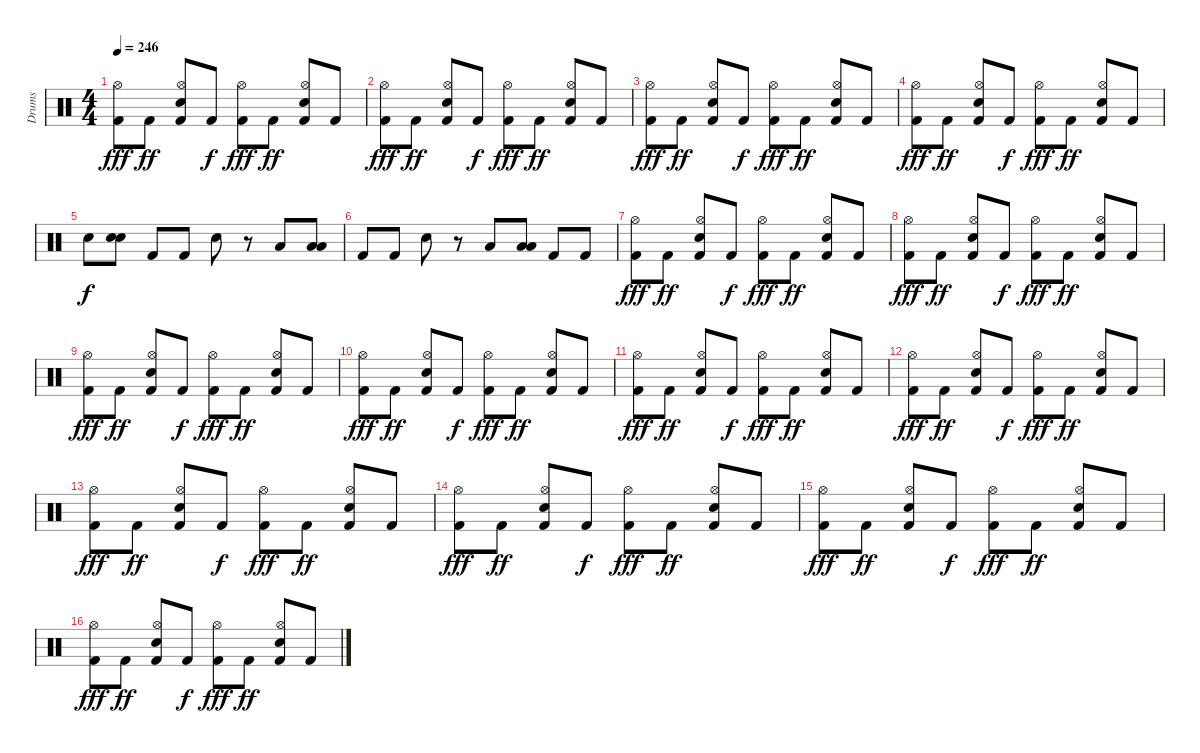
\track ("Drums" "Drums") {instrument percussion}
\staff {score}
\articulation defaults
\ts (4 4)
\tempo 246
\clef neutral
\ks c
("Kick (hit) 2" "Hi-Hat (open)").8{dy fff volume 12} "Kick (hit) 2".8{dy ff} ("Kick (hit) 2" "Snare (hit) 2" "Hi-Hat (open)").8 "Kick (hit) 2".8{dy f} ("Kick (hit) 2" "Hi-Hat (open)").8{dy fff} "Kick (hit) 2".8{dy ff} ("Kick (hit) 2" "Snare (hit) 2" "Hi-Hat (open)").8 "Kick (hit) 2".8 |
("Kick (hit) 2" "Hi-Hat (open)").8{dy fff volume 12} "Kick (hit) 2".8{dy ff} ("Kick (hit) 2" "Snare (hit) 2" "Hi-Hat (open)").8 "Kick (hit) 2".8{dy f} ("Kick (hit) 2" "Hi-Hat (open)").8{dy fff} "Kick (hit) 2".8{dy ff} ("Kick (hit) 2" "Snare (hit) 2" "Hi-Hat (open)").8 "Kick (hit) 2".8 |
("Kick (hit) 2" "Hi-Hat (open)").8{dy fff volume 12} "Kick (hit) 2".8{dy ff} ("Kick (hit) 2" "Snare (hit) 2" "Hi-Hat (open)").8 "Kick (hit) 2".8{dy f} ("Kick (hit) 2" "Hi-Hat (open)").8{dy fff} "Kick (hit) 2".8{dy ff} ("Kick (hit) 2" "Snare (hit) 2" "Hi-Hat (open)").8 "Kick (hit) 2".8 |
("Kick (hit) 2" "Hi-Hat (open)").8{dy fff volume 12} "Kick (hit) 2".8{dy ff} ("Kick (hit) 2" "Snare (hit) 2" "Hi-Hat (open)").8 "Kick (hit) 2".8{dy f} ("Kick (hit) 2" "Hi-Hat (open)").8{dy fff} "Kick (hit) 2".8{dy ff} ("Kick (hit) 2" "Snare (hit) 2" "Hi-Hat (open)").8 "Kick (hit) 2".8 |
"Snare (hit) 2".8{dy f volume 12} ("Snare (hit) 2" "Snare (hit) 2").8 "Kick (hit) 2".8 "Kick (hit) 2".8 "Snare (hit) 2".8 r.8 "Low Floor Tom (hit)".8 ("Low Floor Tom (hit)" "Low Floor Tom (hit)").8 |
"Kick (hit) 2".8{volume 12} "Kick (hit) 2".8 "Snare (hit) 2".8 r.8 "Low Floor Tom (hit)".8 ("Low Floor Tom (hit)" "Low Floor Tom (hit)").8 "Kick (hit) 2".8 "Kick (hit) 2".8 |
("Kick (hit) 2" "Hi-Hat (open)").8{dy fff volume 12} "Kick (hit) 2".8{dy ff} ("Kick (hit) 2" "Snare (hit) 2" "Hi-Hat (open)").8 "Kick (hit) 2".8{dy f} ("Kick (hit) 2" "Hi-Hat (open)").8{dy fff} "Kick (hit) 2".8{dy ff} ("Kick (hit) 2" "Snare (hit) 2" "Hi-Hat (open)").8 "Kick (hit) 2".8 |
("Kick (hit) 2" "Hi-Hat (open)").8{dy fff volume 12} "Kick (hit) 2".8{dy ff} ("Kick (hit) 2" "Snare (hit) 2" "Hi-Hat (open)").8 "Kick (hit) 2".8{dy f} ("Kick (hit) 2" "Hi-Hat (open)").8{dy fff} "Kick (hit) 2".8{dy ff} ("Kick (hit) 2" "Snare (hit) 2" "Hi-Hat (open)").8 "Kick (hit) 2".8 |
("Kick (hit) 2" "Hi-Hat (open)").8{dy fff volume 12} "Kick (hit) 2".8{dy ff} ("Kick (hit) 2" "Snare (hit) 2" "Hi-Hat (open)").8 "Kick (hit) 2".8{dy f} ("Kick (hit) 2" "Hi-Hat (open)").8{dy fff} "Kick (hit) 2".8{dy ff} ("Kick (hit) 2" "Snare (hit) 2" "Hi-Hat (open)").8 "Kick (hit) 2".8 |
("Kick (hit) 2" "Hi-Hat (open)").8{dy fff volume 12} "Kick (hit) 2".8{dy ff} ("Kick (hit) 2" "Snare (hit) 2" "Hi-Hat (open)").8 "Kick (hit) 2".8{dy f} ("Kick (hit) 2" "Hi-Hat (open)").8{dy fff} "Kick (hit) 2".8{dy ff} ("Kick (hit) 2" "Snare (hit) 2" "Hi-Hat (open)").8 "Kick (hit) 2".8 |
("Kick (hit) 2" "Hi-Hat (open)").8{dy fff volume 12} "Kick (hit) 2".8{dy ff} ("Kick (hit) 2" "Snare (hit) 2" "Hi-Hat (open)").8 "Kick (hit) 2".8{dy f} ("Kick (hit) 2" "Hi-Hat (open)").8{dy fff} "Kick (hit) 2".8{dy ff} ("Kick (hit) 2" "Snare (hit) 2" "Hi-Hat (open)").8 "Kick (hit) 2".8 |
("Kick (hit) 2" "Hi-Hat (open)").8{dy fff volume 12} "Kick (hit) 2".8{dy ff} ("Kick (hit) 2" "Snare (hit) 2" "Hi-Hat (open)").8 "Kick (hit) 2".8{dy f} ("Kick (hit) 2" "Hi-Hat (open)").8{dy fff} "Kick (hit) 2".8{dy ff} ("Kick (hit) 2" "Snare (hit) 2" "Hi-Hat (open)").8 "Kick (hit) 2".8 |
("Kick (hit) 2" "Hi-Hat (open)").8{dy fff volume 12} "Kick (hit) 2".8{dy ff} ("Kick (hit) 2" "Snare (hit) 2" "Hi-Hat (open)").8 "Kick (hit) 2".8{dy f} ("Kick (hit) 2" "Hi-Hat (open)").8{dy fff} "Kick (hit) 2".8{dy ff} ("Kick (hit) 2" "Snare (hit) 2" "Hi-Hat (open)").8 "Kick (hit) 2".8 |
("Kick (hit) 2" "Hi-Hat (open)").8{dy fff volume 12} "Kick (hit) 2".8{dy ff} ("Kick (hit) 2" "Snare (hit) 2" "Hi-Hat (open)").8 "Kick (hit) 2".8{dy f} ("Kick (hit) 2" "Hi-Hat (open)").8{dy fff} "Kick (hit) 2".8{dy ff} ("Kick (hit) 2" "Snare (hit) 2" "Hi-Hat (open)").8 "Kick (hit) 2".8 |
("Kick (hit) 2" "Hi-Hat (open)").8{dy fff volume 12} "Kick (hit) 2".8{dy ff} ("Kick (hit) 2" "Snare (hit) 2" "Hi-Hat (open)").8 "Kick (hit) 2".8{dy f} ("Kick (hit) 2" "Hi-Hat (open)").8{dy fff} "Kick (hit) 2".8{dy ff} ("Kick (hit) 2" "Snare (hit) 2" "Hi-Hat (open)").8 "Kick (hit) 2".8 |
("Kick (hit) 2" "Hi-Hat (open)").8{dy fff volume 12} "Kick (hit) 2".8{dy ff} ("Kick (hit) 2" "Snare (hit) 2" "Hi-Hat (open)").8 "Kick (hit) 2".8{dy f} ("Kick (hit) 2" "Hi-Hat (open)").8{dy fff} "Kick (hit) 2".8{dy ff} ("Kick (hit) 2" "Snare (hit) 2" "Hi-Hat (open)").8 "Kick (hit) 2".8
